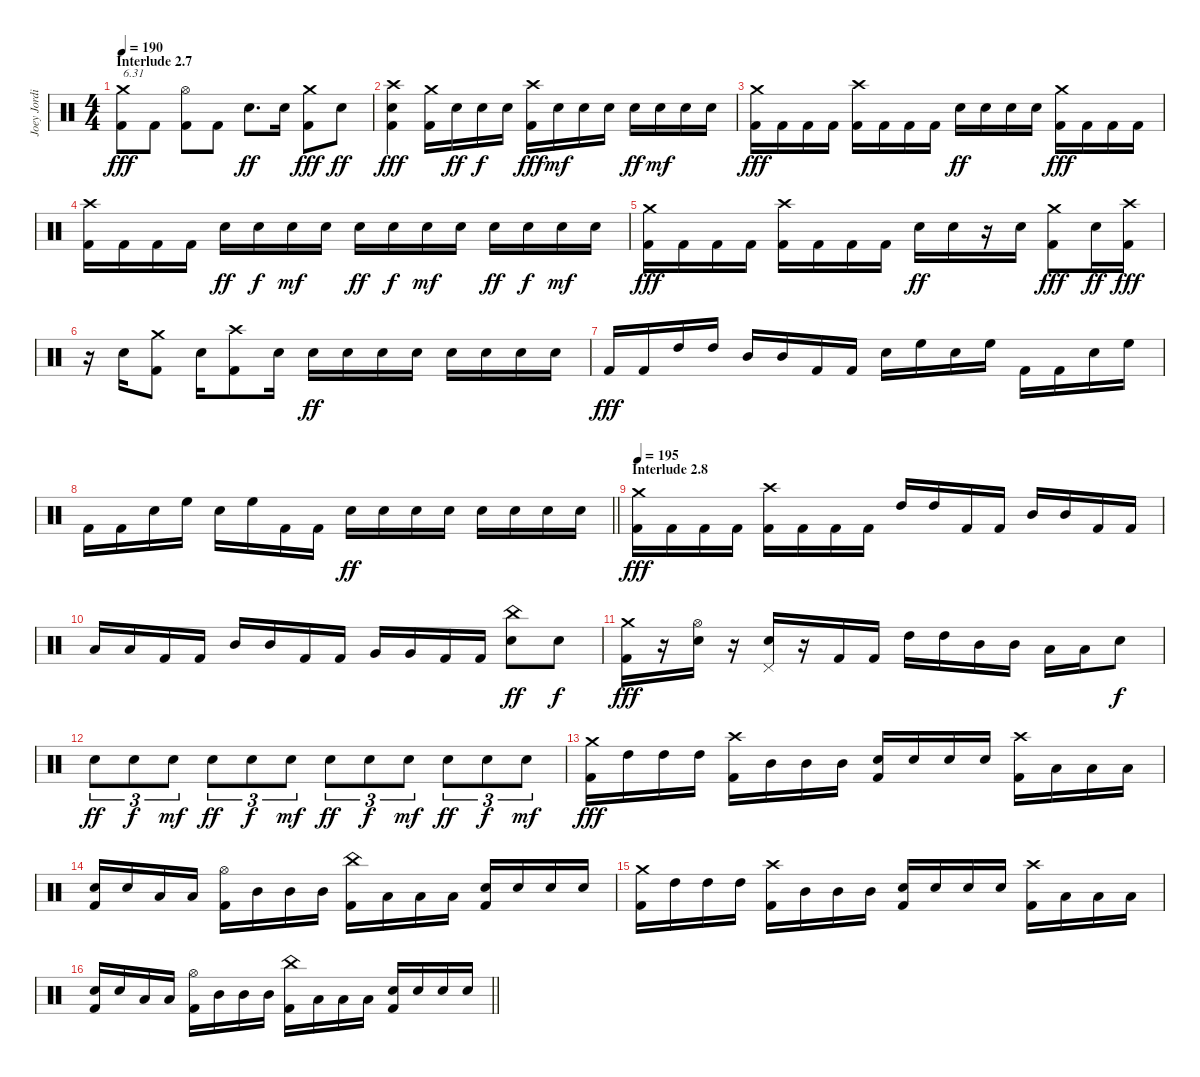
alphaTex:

\track ("Joey Jordison" "Joey Jordi") {instrument percussion}
\staff {score}
\articulation defaults
\ts (4 4)
\section ("" "Interlude 2.7")
\tempo 190
\clef neutral
\ks c
("Crash medium (hit)" "Kick (hit) 2").8{txt "6.31" dy fff} "Kick (hit) 2".8 ("Hi-Hat (open)" "Kick (hit) 2").8 "Kick (hit) 2".8 "Electric Snare (hit)".8{d dy ff} "Electric Snare (hit)".16 ("Crash medium (hit)" "Kick (hit) 2").8{dy fff} "Electric Snare (hit)".8{dy ff} |
("Crash high (hit)" "Electric Snare (hit)" "Kick (hit) 2").4{dy fff} ("Crash medium (hit)" "Kick (hit) 2").16 "Electric Snare (hit)".16{dy ff} "Electric Snare (hit)".16{dy f} "Electric Snare (hit)".16 ("Crash high (hit)" "Kick (hit) 2").16{dy fff} "Electric Snare (hit)".16{dy mf} "Electric Snare (hit)".16 "Electric Snare (hit)".16 "Electric Snare (hit)".16{dy ff} "Electric Snare (hit)".16{dy mf} "Electric Snare (hit)".16 "Electric Snare (hit)".16 |
("Crash medium (hit)" "Kick (hit) 2").16{dy fff} "Kick (hit) 2".16 "Kick (hit) 2".16 "Kick (hit) 2".16 ("Crash high (hit)" "Kick (hit) 2").16 "Kick (hit) 2".16 "Kick (hit) 2".16 "Kick (hit) 2".16 "Electric Snare (hit)".16{dy ff} "Electric Snare (hit)".16 "Electric Snare (hit)".16 "Electric Snare (hit)".16 ("Crash medium (hit)" "Kick (hit) 2").16{dy fff} "Kick (hit) 2".16 "Kick (hit) 2".16 "Kick (hit) 2".16 |
("Crash high (hit)" "Kick (hit) 2").16 "Kick (hit) 2".16 "Kick (hit) 2".16 "Kick (hit) 2".16 "Electric Snare (hit)".16{dy ff} "Electric Snare (hit)".16{dy f} "Electric Snare (hit)".16{dy mf} "Electric Snare (hit)".16 "Electric Snare (hit)".16{dy ff} "Electric Snare (hit)".16{dy f} "Electric Snare (hit)".16{dy mf} "Electric Snare (hit)".16 "Electric Snare (hit)".16{dy ff} "Electric Snare (hit)".16{dy f} "Electric Snare (hit)".16{dy mf} "Electric Snare (hit)".16 |
("Crash medium (hit)" "Kick (hit) 2").16{dy fff} "Kick (hit) 2".16 "Kick (hit) 2".16 "Kick (hit) 2".16 ("Crash high (hit)" "Kick (hit) 2").16 "Kick (hit) 2".16 "Kick (hit) 2".16 "Kick (hit) 2".16 "Electric Snare (hit)".16{dy ff} "Electric Snare (hit)".16 r.16 "Electric Snare (hit)".16 ("Crash medium (hit)" "Kick (hit) 2").8{dy fff} "Electric Snare (hit)".16{dy ff} ("Crash high (hit)" "Kick (hit) 2").16{dy fff} |
r.16 "Electric Snare (hit)".16 ("Crash medium (hit)" "Kick (hit) 2").8 "Electric Snare (hit)".16 ("Crash high (hit)" "Kick (hit) 2").8 "Electric Snare (hit)".16 "Electric Snare (hit)".16{dy ff} "Electric Snare (hit)".16 "Electric Snare (hit)".16 "Electric Snare (hit)".16 "Electric Snare (hit)".16 "Electric Snare (hit)".16 "Electric Snare (hit)".16 "Electric Snare (hit)".16 |
"Kick (hit) 2".16{dy fff} "Kick (hit) 2".16 "High Tom (hit)".16 "High Tom (hit)".16 "Mid Tom (hit)".16 "Mid Tom (hit)".16 "Kick (hit) 2".16 "Kick (hit) 2".16 "Electric Snare (hit)".16 "High Floor Tom (hit)".16 "Electric Snare (hit)".16 "High Floor Tom (hit)".16 "Kick (hit) 2".16 "Kick (hit) 2".16 "Electric Snare (hit)".16 "High Floor Tom (hit)".16 |
\barLineRight lightlight "Kick (hit) 2".16 "Kick (hit) 2".16 "Electric Snare (hit)".16 "High Floor Tom (hit)".16 "Electric Snare (hit)".16 "High Floor Tom (hit)".16 "Kick (hit) 2".16 "Kick (hit) 2".16 "Electric Snare (hit)".16{dy ff} "Electric Snare (hit)".16 "Electric Snare (hit)".16 "Electric Snare (hit)".16 "Electric Snare (hit)".16 "Electric Snare (hit)".16 "Electric Snare (hit)".16 "Electric Snare (hit)".16
|
\section ("" "Interlude 2.8")
\tempo 195
("Crash medium (hit)" "Kick (hit) 2").16{dy fff} "Kick (hit) 2".16 "Kick (hit) 2".16 "Kick (hit) 2".16 ("Crash high (hit)" "Kick (hit) 2").16 "Kick (hit) 2".16 "Kick (hit) 2".16 "Kick (hit) 2".16 "High Tom (hit)".16 "High Tom (hit)".16 "Kick (hit) 2".16 "Kick (hit) 2".16 "Mid Tom (hit)".16 "Mid Tom (hit)".16 "Kick (hit) 2".16 "Kick (hit) 2".16 |
"Low Tom (hit)".16 "Low Tom (hit)".16 "Kick (hit) 2".16 "Kick (hit) 2".16 "Mid Tom (hit)".16 "Mid Tom (hit)".16 "Kick (hit) 2".16 "Kick (hit) 2".16 "Very Low Tom (hit)".16 "Very Low Tom (hit)".16 "Kick (hit) 2".16 "Kick (hit) 2".16 ("China (hit)" "Electric Snare (hit)").8{dy ff} "Electric Snare (hit)".8{dy f} |
("Crash medium (hit)" "Kick (hit) 2").16{dy fff} r.16 ("Hi-Hat (open)" "Electric Snare (hit)").16 r.16 ("Electric Snare (hit)" "Pedal Hi-Hat (hit)").16 r.16 "Kick (hit) 2".16 "Kick (hit) 2".16 "High Tom (hit)".16 "High Tom (hit)".16 "Mid Tom (hit)".16 "Mid Tom (hit)".16 "Low Tom (hit)".16 "Low Tom (hit)".16 "Electric Snare (hit)".8{dy f} |
"Electric Snare (hit)".8{tu (3 2) dy ff} "Electric Snare (hit)".8{tu (3 2) dy f} "Electric Snare (hit)".8{tu (3 2) dy mf} "Electric Snare (hit)".8{tu (3 2) dy ff} "Electric Snare (hit)".8{tu (3 2) dy f} "Electric Snare (hit)".8{tu (3 2) dy mf} "Electric Snare (hit)".8{tu (3 2) dy ff} "Electric Snare (hit)".8{tu (3 2) dy f} "Electric Snare (hit)".8{tu (3 2) dy mf} "Electric Snare (hit)".8{tu (3 2) dy ff} "Electric Snare (hit)".8{tu (3 2) dy f} "Electric Snare (hit)".8{tu (3 2) dy mf} |
("Crash medium (hit)" "Kick (hit) 2").16{dy fff} "High Tom (hit)".16 "High Tom (hit)".16 "High Tom (hit)".16 ("Crash high (hit)" "Kick (hit) 2").16 "Mid Tom (hit)".16 "Mid Tom (hit)".16 "Mid Tom (hit)".16 ("Electric Snare (hit)" "Kick (hit) 2").16 "Electric Snare (hit)".16 "Electric Snare (hit)".16 "Electric Snare (hit)".16 ("Crash high (hit)" "Kick (hit) 2").16 "Low Tom (hit)".16 "Low Tom (hit)".16 "Low Tom (hit)".16 |
("Electric Snare (hit)" "Kick (hit) 2").16 "Electric Snare (hit)".16 "Low Tom (hit)".16 "Low Tom (hit)".16 ("Hi-Hat (open)" "Kick (hit) 2").16 "Mid Tom (hit)".16 "Mid Tom (hit)".16 "Mid Tom (hit)".16 ("China (hit)" "Kick (hit) 2").16 "Low Tom (hit)".16 "Low Tom (hit)".16 "Low Tom (hit)".16 ("Electric Snare (hit)" "Kick (hit) 2").16 "Electric Snare (hit)".16 "Electric Snare (hit)".16 "Electric Snare (hit)".16 |
("Crash medium (hit)" "Kick (hit) 2").16 "High Tom (hit)".16 "High Tom (hit)".16 "High Tom (hit)".16 ("Crash high (hit)" "Kick (hit) 2").16 "Mid Tom (hit)".16 "Mid Tom (hit)".16 "Mid Tom (hit)".16 ("Electric Snare (hit)" "Kick (hit) 2").16 "Electric Snare (hit)".16 "Electric Snare (hit)".16 "Electric Snare (hit)".16 ("Crash high (hit)" "Kick (hit) 2").16 "Low Tom (hit)".16 "Low Tom (hit)".16 "Low Tom (hit)".16 |
\barLineRight lightlight
("Electric Snare (hit)" "Kick (hit) 2").16 "Electric Snare (hit)".16 "Low Tom (hit)".16 "Low Tom (hit)".16 ("Hi-Hat (open)" "Kick (hit) 2").16 "Mid Tom (hit)".16 "Mid Tom (hit)".16 "Mid Tom (hit)".16 ("China (hit)" "Kick (hit) 2").16 "Low Tom (hit)".16 "Low Tom (hit)".16 "Low Tom (hit)".16 ("Electric Snare (hit)" "Kick (hit) 2").16 "Electric Snare (hit)".16 "Electric Snare (hit)".16 "Electric Snare (hit)".16
